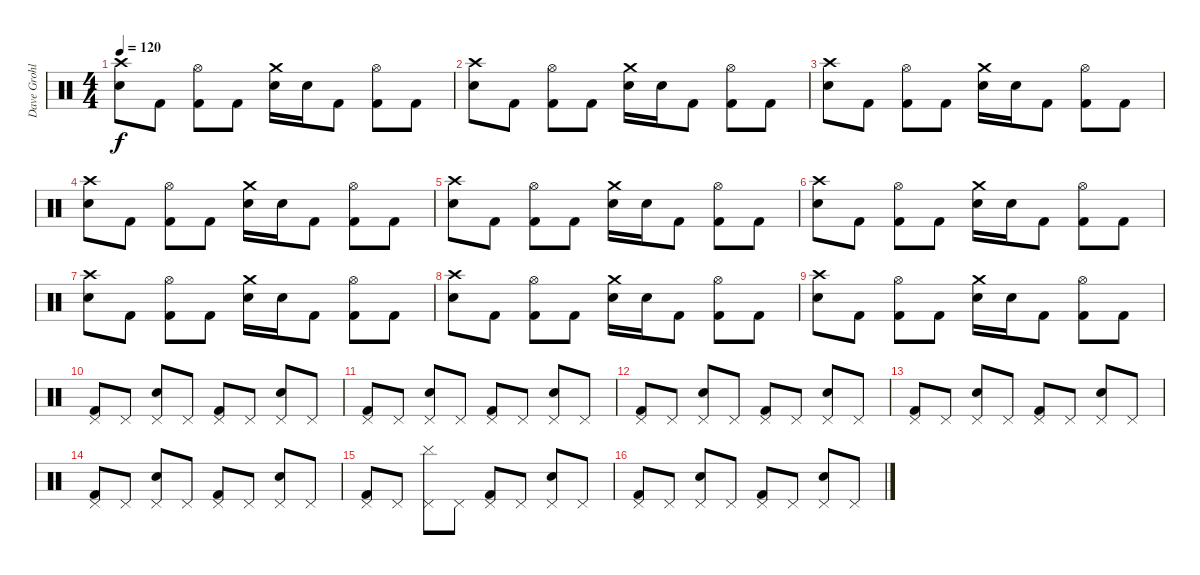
\track ("Dave Grohl" "Dave Grohl") {instrument percussion}
\staff {score}
\articulation defaults
\ts (4 4)
\tempo 120
\clef neutral
\ks c
("Electric Snare (hit)" "Crash high (hit)").8{dy f} "Kick (hit) 2".8 ("Hi-Hat (open)" "Kick (hit) 2").8 "Kick (hit) 2".8 ("Crash medium (hit)" "Electric Snare (hit)").16 "Electric Snare (hit)".16 "Kick (hit) 2".8 ("Hi-Hat (open)" "Kick (hit) 2").8 "Kick (hit) 2".8 |
("Electric Snare (hit)" "Crash high (hit)").8 "Kick (hit) 2".8 ("Hi-Hat (open)" "Kick (hit) 2").8 "Kick (hit) 2".8 ("Crash medium (hit)" "Electric Snare (hit)").16 "Electric Snare (hit)".16 "Kick (hit) 2".8 ("Hi-Hat (open)" "Kick (hit) 2").8 "Kick (hit) 2".8 |
("Electric Snare (hit)" "Crash high (hit)").8 "Kick (hit) 2".8 ("Hi-Hat (open)" "Kick (hit) 2").8 "Kick (hit) 2".8 ("Crash medium (hit)" "Electric Snare (hit)").16 "Electric Snare (hit)".16 "Kick (hit) 2".8 ("Hi-Hat (open)" "Kick (hit) 2").8 "Kick (hit) 2".8 |
("Electric Snare (hit)" "Crash high (hit)").8 "Kick (hit) 2".8 ("Hi-Hat (open)" "Kick (hit) 2").8 "Kick (hit) 2".8 ("Crash medium (hit)" "Electric Snare (hit)").16 "Electric Snare (hit)".16 "Kick (hit) 2".8 ("Hi-Hat (open)" "Kick (hit) 2").8 "Kick (hit) 2".8 |
("Electric Snare (hit)" "Crash high (hit)").8 "Kick (hit) 2".8 ("Hi-Hat (open)" "Kick (hit) 2").8 "Kick (hit) 2".8 ("Crash medium (hit)" "Electric Snare (hit)").16 "Electric Snare (hit)".16 "Kick (hit) 2".8 ("Hi-Hat (open)" "Kick (hit) 2").8 "Kick (hit) 2".8 |
("Electric Snare (hit)" "Crash high (hit)").8 "Kick (hit) 2".8 ("Hi-Hat (open)" "Kick (hit) 2").8 "Kick (hit) 2".8 ("Crash medium (hit)" "Electric Snare (hit)").16 "Electric Snare (hit)".16 "Kick (hit) 2".8 ("Hi-Hat (open)" "Kick (hit) 2").8 "Kick (hit) 2".8 |
("Electric Snare (hit)" "Crash high (hit)").8 "Kick (hit) 2".8 ("Hi-Hat (open)" "Kick (hit) 2").8 "Kick (hit) 2".8 ("Crash medium (hit)" "Electric Snare (hit)").16 "Electric Snare (hit)".16 "Kick (hit) 2".8 ("Hi-Hat (open)" "Kick (hit) 2").8 "Kick (hit) 2".8 |
("Electric Snare (hit)" "Crash high (hit)").8 "Kick (hit) 2".8 ("Hi-Hat (open)" "Kick (hit) 2").8 "Kick (hit) 2".8 ("Crash medium (hit)" "Electric Snare (hit)").16 "Electric Snare (hit)".16 "Kick (hit) 2".8 ("Hi-Hat (open)" "Kick (hit) 2").8 "Kick (hit) 2".8 |
("Electric Snare (hit)" "Crash high (hit)").8 "Kick (hit) 2".8 ("Hi-Hat (open)" "Kick (hit) 2").8 "Kick (hit) 2".8 ("Crash medium (hit)" "Electric Snare (hit)").16 "Electric Snare (hit)".16 "Kick (hit) 2".8 ("Hi-Hat (open)" "Kick (hit) 2").8 "Kick (hit) 2".8 |
("Pedal Hi-Hat (hit)" "Kick (hit) 2").8 "Pedal Hi-Hat (hit)".8 ("Pedal Hi-Hat (hit)" "Electric Snare (hit)").8 "Pedal Hi-Hat (hit)".8 ("Pedal Hi-Hat (hit)" "Kick (hit) 2").8 "Pedal Hi-Hat (hit)".8 ("Pedal Hi-Hat (hit)" "Electric Snare (hit)").8 "Pedal Hi-Hat (hit)".8 |
("Pedal Hi-Hat (hit)" "Kick (hit) 2").8 "Pedal Hi-Hat (hit)".8 ("Pedal Hi-Hat (hit)" "Electric Snare (hit)").8 "Pedal Hi-Hat (hit)".8 ("Pedal Hi-Hat (hit)" "Kick (hit) 2").8 "Pedal Hi-Hat (hit)".8 ("Pedal Hi-Hat (hit)" "Electric Snare (hit)").8 "Pedal Hi-Hat (hit)".8 |
("Pedal Hi-Hat (hit)" "Kick (hit) 2").8 "Pedal Hi-Hat (hit)".8 ("Pedal Hi-Hat (hit)" "Electric Snare (hit)").8 "Pedal Hi-Hat (hit)".8 ("Pedal Hi-Hat (hit)" "Kick (hit) 2").8 "Pedal Hi-Hat (hit)".8 ("Pedal Hi-Hat (hit)" "Electric Snare (hit)").8 "Pedal Hi-Hat (hit)".8 |
("Pedal Hi-Hat (hit)" "Kick (hit) 2").8 "Pedal Hi-Hat (hit)".8 ("Pedal Hi-Hat (hit)" "Electric Snare (hit)").8 "Pedal Hi-Hat (hit)".8 ("Pedal Hi-Hat (hit)" "Kick (hit) 2").8 "Pedal Hi-Hat (hit)".8 ("Pedal Hi-Hat (hit)" "Electric Snare (hit)").8 "Pedal Hi-Hat (hit)".8 |
("Pedal Hi-Hat (hit)" "Kick (hit) 2").8 "Pedal Hi-Hat (hit)".8 ("Pedal Hi-Hat (hit)" "Electric Snare (hit)").8 "Pedal Hi-Hat (hit)".8 ("Pedal Hi-Hat (hit)" "Kick (hit) 2").8 "Pedal Hi-Hat (hit)".8 ("Pedal Hi-Hat (hit)" "Electric Snare (hit)").8 "Pedal Hi-Hat (hit)".8 |
("Pedal Hi-Hat (hit)" "Kick (hit) 2").8 "Pedal Hi-Hat (hit)".8 ("Pedal Hi-Hat (hit)" "Cymbal (hit)").8 "Pedal Hi-Hat (hit)".8 ("Pedal Hi-Hat (hit)" "Kick (hit) 2").8 "Pedal Hi-Hat (hit)".8 ("Pedal Hi-Hat (hit)" "Electric Snare (hit)").8 "Pedal Hi-Hat (hit)".8 |
("Pedal Hi-Hat (hit)" "Kick (hit) 2").8 "Pedal Hi-Hat (hit)".8 ("Pedal Hi-Hat (hit)" "Electric Snare (hit)").8 "Pedal Hi-Hat (hit)".8 ("Pedal Hi-Hat (hit)" "Kick (hit) 2").8 "Pedal Hi-Hat (hit)".8 ("Pedal Hi-Hat (hit)" "Electric Snare (hit)").8 "Pedal Hi-Hat (hit)".8
